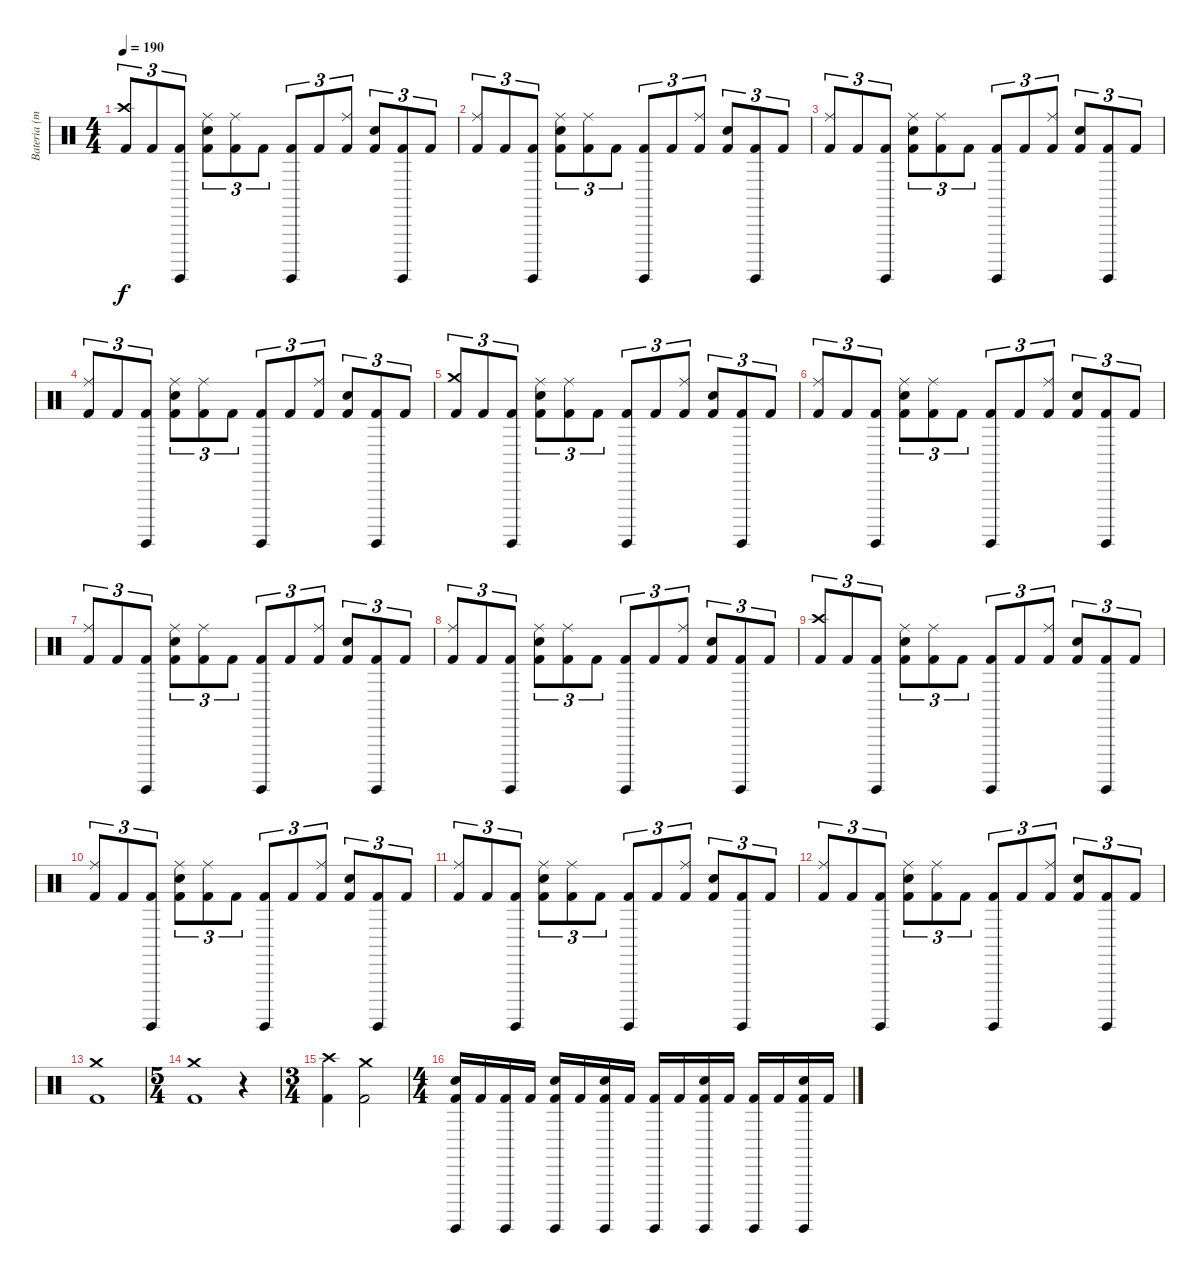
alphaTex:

\track ("Bateria (mestre Aquiles Priester)" "Bateria (m") {instrument percussion}
\staff {score}
\articulation defaults
\ts (4 4)
\tempo 190
\clef neutral
\ks c
("Kick (hit) 2" "Crash high (hit)").8{tu (3 2) dy f} "Kick (hit) 2".8{tu (3 2)} ("Kick (hit) 2" "Surdo (hit)").8{tu (3 2)} ("Kick (hit) 2" "Electric Snare (hit)" "Ride (middle)").8{tu (3 2)} ("Kick (hit) 2" "Ride (middle)").8{tu (3 2)} "Kick (hit) 2".8{tu (3 2)} ("Kick (hit) 2" "Surdo (hit)").8{tu (3 2)} "Kick (hit) 2".8{tu (3 2)} ("Kick (hit) 2" "Ride (middle)").8{tu (3 2)} ("Kick (hit) 2" "Electric Snare (hit)").8{tu (3 2)} ("Kick (hit) 2" "Surdo (hit)").8{tu (3 2)} "Kick (hit) 2".8{tu (3 2)} |
("Kick (hit) 2" "Ride (middle)").8{tu (3 2)} "Kick (hit) 2".8{tu (3 2)} ("Kick (hit) 2" "Surdo (hit)").8{tu (3 2)} ("Kick (hit) 2" "Electric Snare (hit)" "Ride (middle)").8{tu (3 2)} ("Kick (hit) 2" "Ride (middle)").8{tu (3 2)} "Kick (hit) 2".8{tu (3 2)} ("Kick (hit) 2" "Surdo (hit)").8{tu (3 2)} "Kick (hit) 2".8{tu (3 2)} ("Kick (hit) 2" "Ride (middle)").8{tu (3 2)} ("Kick (hit) 2" "Electric Snare (hit)").8{tu (3 2)} ("Kick (hit) 2" "Surdo (hit)").8{tu (3 2)} "Kick (hit) 2".8{tu (3 2)} |
("Kick (hit) 2" "Ride (middle)").8{tu (3 2)} "Kick (hit) 2".8{tu (3 2)} ("Kick (hit) 2" "Surdo (hit)").8{tu (3 2)} ("Kick (hit) 2" "Electric Snare (hit)" "Ride (middle)").8{tu (3 2)} ("Kick (hit) 2" "Ride (middle)").8{tu (3 2)} "Kick (hit) 2".8{tu (3 2)} ("Kick (hit) 2" "Surdo (hit)").8{tu (3 2)} "Kick (hit) 2".8{tu (3 2)} ("Kick (hit) 2" "Ride (middle)").8{tu (3 2)} ("Kick (hit) 2" "Electric Snare (hit)").8{tu (3 2)} ("Kick (hit) 2" "Surdo (hit)").8{tu (3 2)} "Kick (hit) 2".8{tu (3 2)} |
("Kick (hit) 2" "Ride (middle)").8{tu (3 2)} "Kick (hit) 2".8{tu (3 2)} ("Kick (hit) 2" "Surdo (hit)").8{tu (3 2)} ("Kick (hit) 2" "Electric Snare (hit)" "Ride (middle)").8{tu (3 2)} ("Kick (hit) 2" "Ride (middle)").8{tu (3 2)} "Kick (hit) 2".8{tu (3 2)} ("Kick (hit) 2" "Surdo (hit)").8{tu (3 2)} "Kick (hit) 2".8{tu (3 2)} ("Kick (hit) 2" "Ride (middle)").8{tu (3 2)} ("Kick (hit) 2" "Electric Snare (hit)").8{tu (3 2)} ("Kick (hit) 2" "Surdo (hit)").8{tu (3 2)} "Kick (hit) 2".8{tu (3 2)} |
("Kick (hit) 2" "Crash medium (hit)").8{tu (3 2)} "Kick (hit) 2".8{tu (3 2)} ("Kick (hit) 2" "Surdo (hit)").8{tu (3 2)} ("Kick (hit) 2" "Electric Snare (hit)" "Ride (middle)").8{tu (3 2)} ("Kick (hit) 2" "Ride (middle)").8{tu (3 2)} "Kick (hit) 2".8{tu (3 2)} ("Kick (hit) 2" "Surdo (hit)").8{tu (3 2)} "Kick (hit) 2".8{tu (3 2)} ("Kick (hit) 2" "Ride (middle)").8{tu (3 2)} ("Kick (hit) 2" "Electric Snare (hit)").8{tu (3 2)} ("Kick (hit) 2" "Surdo (hit)").8{tu (3 2)} "Kick (hit) 2".8{tu (3 2)} |
("Kick (hit) 2" "Ride (middle)").8{tu (3 2)} "Kick (hit) 2".8{tu (3 2)} ("Kick (hit) 2" "Surdo (hit)").8{tu (3 2)} ("Kick (hit) 2" "Electric Snare (hit)" "Ride (middle)").8{tu (3 2)} ("Kick (hit) 2" "Ride (middle)").8{tu (3 2)} "Kick (hit) 2".8{tu (3 2)} ("Kick (hit) 2" "Surdo (hit)").8{tu (3 2)} "Kick (hit) 2".8{tu (3 2)} ("Kick (hit) 2" "Ride (middle)").8{tu (3 2)} ("Kick (hit) 2" "Electric Snare (hit)").8{tu (3 2)} ("Kick (hit) 2" "Surdo (hit)").8{tu (3 2)} "Kick (hit) 2".8{tu (3 2)} |
("Kick (hit) 2" "Ride (middle)").8{tu (3 2)} "Kick (hit) 2".8{tu (3 2)} ("Kick (hit) 2" "Surdo (hit)").8{tu (3 2)} ("Kick (hit) 2" "Electric Snare (hit)" "Ride (middle)").8{tu (3 2)} ("Kick (hit) 2" "Ride (middle)").8{tu (3 2)} "Kick (hit) 2".8{tu (3 2)} ("Kick (hit) 2" "Surdo (hit)").8{tu (3 2)} "Kick (hit) 2".8{tu (3 2)} ("Kick (hit) 2" "Ride (middle)").8{tu (3 2)} ("Kick (hit) 2" "Electric Snare (hit)").8{tu (3 2)} ("Kick (hit) 2" "Surdo (hit)").8{tu (3 2)} "Kick (hit) 2".8{tu (3 2)} |
("Kick (hit) 2" "Ride (middle)").8{tu (3 2)} "Kick (hit) 2".8{tu (3 2)} ("Kick (hit) 2" "Surdo (hit)").8{tu (3 2)} ("Kick (hit) 2" "Electric Snare (hit)" "Ride (middle)").8{tu (3 2)} ("Kick (hit) 2" "Ride (middle)").8{tu (3 2)} "Kick (hit) 2".8{tu (3 2)} ("Kick (hit) 2" "Surdo (hit)").8{tu (3 2)} "Kick (hit) 2".8{tu (3 2)} ("Kick (hit) 2" "Ride (middle)").8{tu (3 2)} ("Kick (hit) 2" "Electric Snare (hit)").8{tu (3 2)} ("Kick (hit) 2" "Surdo (hit)").8{tu (3 2)} "Kick (hit) 2".8{tu (3 2)} |
("Kick (hit) 2" "Crash high (hit)").8{tu (3 2)} "Kick (hit) 2".8{tu (3 2)} ("Kick (hit) 2" "Surdo (hit)").8{tu (3 2)} ("Kick (hit) 2" "Electric Snare (hit)" "Ride (middle)").8{tu (3 2)} ("Kick (hit) 2" "Ride (middle)").8{tu (3 2)} "Kick (hit) 2".8{tu (3 2)} ("Kick (hit) 2" "Surdo (hit)").8{tu (3 2)} "Kick (hit) 2".8{tu (3 2)} ("Kick (hit) 2" "Ride (middle)").8{tu (3 2)} ("Kick (hit) 2" "Electric Snare (hit)").8{tu (3 2)} ("Kick (hit) 2" "Surdo (hit)").8{tu (3 2)} "Kick (hit) 2".8{tu (3 2)} |
("Kick (hit) 2" "Ride (middle)").8{tu (3 2)} "Kick (hit) 2".8{tu (3 2)} ("Kick (hit) 2" "Surdo (hit)").8{tu (3 2)} ("Kick (hit) 2" "Electric Snare (hit)" "Ride (middle)").8{tu (3 2)} ("Kick (hit) 2" "Ride (middle)").8{tu (3 2)} "Kick (hit) 2".8{tu (3 2)} ("Kick (hit) 2" "Surdo (hit)").8{tu (3 2)} "Kick (hit) 2".8{tu (3 2)} ("Kick (hit) 2" "Ride (middle)").8{tu (3 2)} ("Kick (hit) 2" "Electric Snare (hit)").8{tu (3 2)} ("Kick (hit) 2" "Surdo (hit)").8{tu (3 2)} "Kick (hit) 2".8{tu (3 2)} |
("Kick (hit) 2" "Ride (middle)").8{tu (3 2)} "Kick (hit) 2".8{tu (3 2)} ("Kick (hit) 2" "Surdo (hit)").8{tu (3 2)} ("Kick (hit) 2" "Electric Snare (hit)" "Ride (middle)").8{tu (3 2)} ("Kick (hit) 2" "Ride (middle)").8{tu (3 2)} "Kick (hit) 2".8{tu (3 2)} ("Kick (hit) 2" "Surdo (hit)").8{tu (3 2)} "Kick (hit) 2".8{tu (3 2)} ("Kick (hit) 2" "Ride (middle)").8{tu (3 2)} ("Kick (hit) 2" "Electric Snare (hit)").8{tu (3 2)} ("Kick (hit) 2" "Surdo (hit)").8{tu (3 2)} "Kick (hit) 2".8{tu (3 2)} |
("Kick (hit) 2" "Ride (middle)").8{tu (3 2)} "Kick (hit) 2".8{tu (3 2)} ("Kick (hit) 2" "Surdo (hit)").8{tu (3 2)} ("Kick (hit) 2" "Electric Snare (hit)" "Ride (middle)").8{tu (3 2)} ("Kick (hit) 2" "Ride (middle)").8{tu (3 2)} "Kick (hit) 2".8{tu (3 2)} ("Kick (hit) 2" "Surdo (hit)").8{tu (3 2)} "Kick (hit) 2".8{tu (3 2)} ("Kick (hit) 2" "Ride (middle)").8{tu (3 2)} ("Kick (hit) 2" "Electric Snare (hit)").8{tu (3 2)} ("Kick (hit) 2" "Surdo (hit)").8{tu (3 2)} "Kick (hit) 2".8{tu (3 2)} |
("Kick (hit) 2" "Crash medium (hit)").1 |
\ts (5 4)
("Kick (hit) 2" "Crash medium (hit)").1 r.4 |
\ts (3 4)
("Kick (hit) 2" "Crash high (hit)").4 ("Kick (hit) 2" "Crash medium (hit)").2 |
\ts (4 4)
("Kick (hit) 2" "Electric Snare (hit)" "Surdo (hit)").16 "Kick (hit) 2".16 ("Kick (hit) 2" "Surdo (hit)").16 "Kick (hit) 2".16 ("Kick (hit) 2" "Electric Snare (hit)" "Surdo (hit)").16 "Kick (hit) 2".16 ("Kick (hit) 2" "Electric Snare (hit)" "Surdo (hit)").16 "Kick (hit) 2".16 ("Kick (hit) 2" "Surdo (hit)").16 "Kick (hit) 2".16 ("Kick (hit) 2" "Electric Snare (hit)" "Surdo (hit)").16 "Kick (hit) 2".16 ("Kick (hit) 2" "Surdo (hit)").16 "Kick (hit) 2".16 ("Kick (hit) 2" "Electric Snare (hit)" "Surdo (hit)").16 "Kick (hit) 2".16
